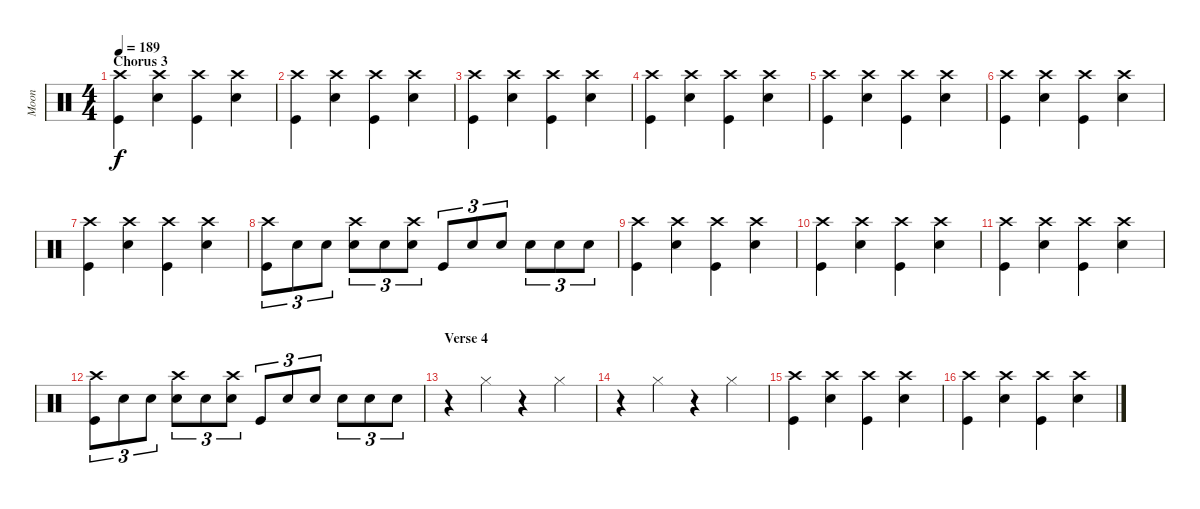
\track ("Moon" "Moon") {instrument percussion}
\staff {score}
\articulation defaults
\ts (4 4)
\section ("" "Chorus 3")
\tempo 189
\clef neutral
\ks c
("Crash high (hit)" "Kick (hit)").4{dy f} ("Crash high (hit)" "Snare (hit) 2").4 ("Crash high (hit)" "Kick (hit)").4 ("Crash high (hit)" "Snare (hit) 2").4 |
("Crash high (hit)" "Kick (hit)").4 ("Crash high (hit)" "Snare (hit) 2").4 ("Crash high (hit)" "Kick (hit)").4 ("Crash high (hit)" "Snare (hit) 2").4 |
("Crash high (hit)" "Kick (hit)").4 ("Crash high (hit)" "Snare (hit) 2").4 ("Crash high (hit)" "Kick (hit)").4 ("Crash high (hit)" "Snare (hit) 2").4 |
("Crash high (hit)" "Kick (hit)").4 ("Crash high (hit)" "Snare (hit) 2").4 ("Crash high (hit)" "Kick (hit)").4 ("Crash high (hit)" "Snare (hit) 2").4 |
("Crash high (hit)" "Kick (hit)").4 ("Crash high (hit)" "Snare (hit) 2").4 ("Crash high (hit)" "Kick (hit)").4 ("Crash high (hit)" "Snare (hit) 2").4 |
("Crash high (hit)" "Kick (hit)").4 ("Crash high (hit)" "Snare (hit) 2").4 ("Crash high (hit)" "Kick (hit)").4 ("Crash high (hit)" "Snare (hit) 2").4 |
("Crash high (hit)" "Kick (hit)").4 ("Crash high (hit)" "Snare (hit) 2").4 ("Crash high (hit)" "Kick (hit)").4 ("Crash high (hit)" "Snare (hit) 2").4 |
("Crash high (hit)" "Kick (hit)").8{tu (3 2)} "Snare (hit) 2".8{tu (3 2)} "Snare (hit) 2".8{tu (3 2)} ("Crash high (hit)" "Snare (hit) 2").8{tu (3 2)} "Snare (hit) 2".8{tu (3 2)} ("Crash high (hit)" "Snare (hit) 2").8{tu (3 2)} "Kick (hit)".8{tu (3 2)} "Snare (hit) 2".8{tu (3 2)} "Snare (hit) 2".8{tu (3 2)} "Snare (hit) 2".8{tu (3 2)} "Snare (hit) 2".8{tu (3 2)} "Snare (hit) 2".8{tu (3 2)} |
("Crash high (hit)" "Kick (hit)").4 ("Crash high (hit)" "Snare (hit) 2").4 ("Crash high (hit)" "Kick (hit)").4 ("Crash high (hit)" "Snare (hit) 2").4 |
("Crash high (hit)" "Kick (hit)").4 ("Crash high (hit)" "Snare (hit) 2").4 ("Crash high (hit)" "Kick (hit)").4 ("Crash high (hit)" "Snare (hit) 2").4 |
("Crash high (hit)" "Kick (hit)").4 ("Crash high (hit)" "Snare (hit) 2").4 ("Crash high (hit)" "Kick (hit)").4 ("Crash high (hit)" "Snare (hit) 2").4 |
("Crash high (hit)" "Kick (hit)").8{tu (3 2)} "Snare (hit) 2".8{tu (3 2)} "Snare (hit) 2".8{tu (3 2)} ("Crash high (hit)" "Snare (hit) 2").8{tu (3 2)} "Snare (hit) 2".8{tu (3 2)} ("Crash high (hit)" "Snare (hit) 2").8{tu (3 2)} "Kick (hit)".8{tu (3 2)} "Snare (hit) 2".8{tu (3 2)} "Snare (hit) 2".8{tu (3 2)} "Snare (hit) 2".8{tu (3 2)} "Snare (hit) 2".8{tu (3 2)} "Snare (hit) 2".8{tu (3 2)} |
\section ("" "Verse 4")
r.4 "Hi-Hat (closed)".4 r.4 "Hi-Hat (closed)".4 |
r.4 "Hi-Hat (closed)".4 r.4 "Hi-Hat (closed)".4 |
("Crash high (hit)" "Kick (hit)").4 ("Crash high (hit)" "Snare (hit) 2").4 ("Crash high (hit)" "Kick (hit)").4 ("Crash high (hit)" "Snare (hit) 2").4 |
("Crash high (hit)" "Kick (hit)").4 ("Crash high (hit)" "Snare (hit) 2").4 ("Crash high (hit)" "Kick (hit)").4 ("Crash high (hit)" "Snare (hit) 2").4
